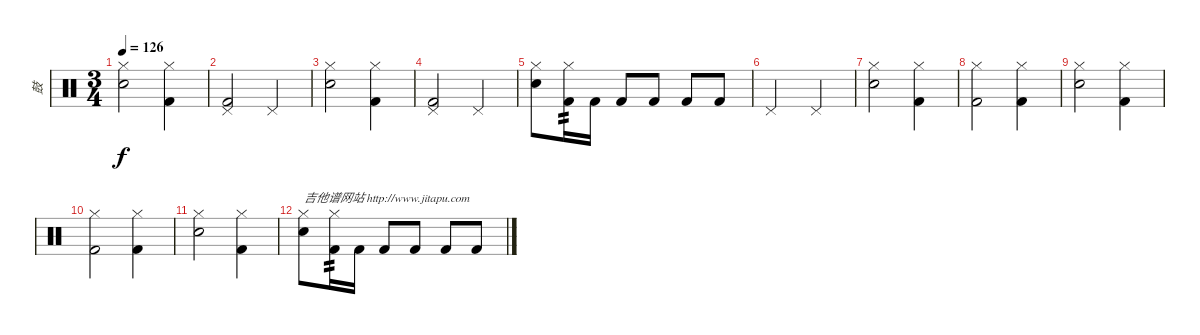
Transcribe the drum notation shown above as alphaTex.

\track ("鼓" "鼓") {instrument percussion}
\staff {score}
\articulation defaults
\ts (3 4)
\tempo 126
\clef neutral
\ks c
("Snare (hit) 2" "Hi-Hat (closed)").2{dy f} ("Kick (hit) 2" "Hi-Hat (closed)").4 |
("Kick (hit) 2" "Pedal Hi-Hat (hit)").2 "Pedal Hi-Hat (hit)".4 |
("Snare (hit) 2" "Hi-Hat (closed)").2 ("Kick (hit) 2" "Hi-Hat (closed)").4 |
("Kick (hit) 2" "Pedal Hi-Hat (hit)").2 "Pedal Hi-Hat (hit)".4 |
("Snare (hit) 2" "Hi-Hat (closed)").8 ("Kick (hit) 2" "Hi-Hat (closed)").16{tp 2} "Kick (hit) 2".16 "Kick (hit) 2".8 "Kick (hit) 2".8 "Kick (hit) 2".8 "Kick (hit) 2".8 |
"Pedal Hi-Hat (hit)".2 "Pedal Hi-Hat (hit)".4 |
("Snare (hit) 2" "Hi-Hat (closed)").2 ("Kick (hit) 2" "Hi-Hat (closed)").4 |
("Kick (hit) 2" "Hi-Hat (closed)").2 ("Kick (hit) 2" "Hi-Hat (closed)").4 |
("Snare (hit) 2" "Hi-Hat (closed)").2 ("Kick (hit) 2" "Hi-Hat (closed)").4 |
("Kick (hit) 2" "Hi-Hat (closed)").2 ("Kick (hit) 2" "Hi-Hat (closed)").4 |
("Snare (hit) 2" "Hi-Hat (closed)").2 ("Kick (hit) 2" "Hi-Hat (closed)").4 |
("Snare (hit) 2" "Hi-Hat (closed)").8{txt "吉他谱网站 http://www.jitapu.com"} ("Kick (hit) 2" "Hi-Hat (closed)").16{tp 2} "Kick (hit) 2".16 "Kick (hit) 2".8 "Kick (hit) 2".8 "Kick (hit) 2".8 "Kick (hit) 2".8
